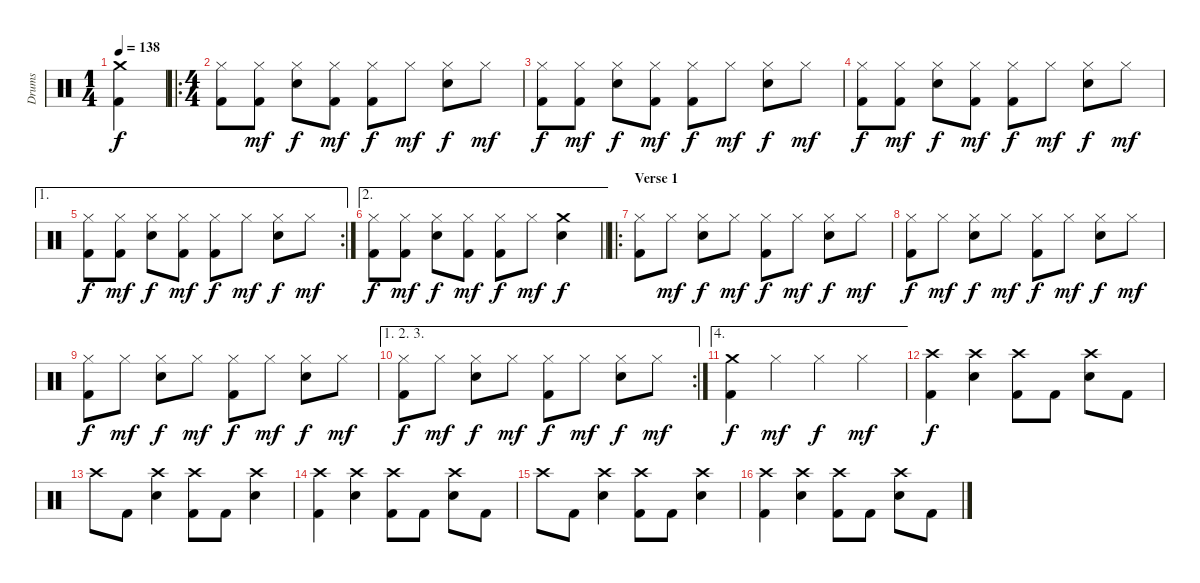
\track ("Drums" "Drums") {instrument percussion}
\staff {score}
\articulation defaults
\ts (1 4)
\tempo 138
\clef neutral
\ks c
("Crash medium (hit)" "Kick (hit) 2").4{dy f} |
\ro
\ts (4 4)
("Hi-Hat (closed)" "Kick (hit) 2").8 ("Hi-Hat (closed)" "Kick (hit) 2").8{dy mf} ("Hi-Hat (closed)" "Electric Snare (hit)").8{dy f} ("Hi-Hat (closed)" "Kick (hit) 2").8{dy mf} ("Hi-Hat (closed)" "Kick (hit) 2").8{dy f} "Hi-Hat (closed)".8{dy mf} ("Hi-Hat (closed)" "Electric Snare (hit)").8{dy f} "Hi-Hat (closed)".8{dy mf} |
("Hi-Hat (closed)" "Kick (hit) 2").8{dy f} ("Hi-Hat (closed)" "Kick (hit) 2").8{dy mf} ("Hi-Hat (closed)" "Electric Snare (hit)").8{dy f} ("Hi-Hat (closed)" "Kick (hit) 2").8{dy mf} ("Hi-Hat (closed)" "Kick (hit) 2").8{dy f} "Hi-Hat (closed)".8{dy mf} ("Hi-Hat (closed)" "Electric Snare (hit)").8{dy f} "Hi-Hat (closed)".8{dy mf} |
("Hi-Hat (closed)" "Kick (hit) 2").8{dy f} ("Hi-Hat (closed)" "Kick (hit) 2").8{dy mf} ("Hi-Hat (closed)" "Electric Snare (hit)").8{dy f} ("Hi-Hat (closed)" "Kick (hit) 2").8{dy mf} ("Hi-Hat (closed)" "Kick (hit) 2").8{dy f} "Hi-Hat (closed)".8{dy mf} ("Hi-Hat (closed)" "Electric Snare (hit)").8{dy f} "Hi-Hat (closed)".8{dy mf} |
\ae 1
\rc 2
("Hi-Hat (closed)" "Kick (hit) 2").8{dy f} ("Hi-Hat (closed)" "Kick (hit) 2").8{dy mf} ("Hi-Hat (closed)" "Electric Snare (hit)").8{dy f} ("Hi-Hat (closed)" "Kick (hit) 2").8{dy mf} ("Hi-Hat (closed)" "Kick (hit) 2").8{dy f} "Hi-Hat (closed)".8{dy mf} ("Hi-Hat (closed)" "Electric Snare (hit)").8{dy f} "Hi-Hat (closed)".8{dy mf} |
\ae 2
\barLineRight lightlight
("Hi-Hat (closed)" "Kick (hit) 2").8{dy f} ("Hi-Hat (closed)" "Kick (hit) 2").8{dy mf} ("Hi-Hat (closed)" "Electric Snare (hit)").8{dy f} ("Hi-Hat (closed)" "Kick (hit) 2").8{dy mf} ("Hi-Hat (closed)" "Kick (hit) 2").8{dy f} "Hi-Hat (closed)".8{dy mf} ("Crash medium (hit)" "Electric Snare (hit)").4{dy f} |
\ro
\section ("" "Verse 1")
("Hi-Hat (closed)" "Kick (hit) 2").8 "Hi-Hat (closed)".8{dy mf} ("Hi-Hat (closed)" "Electric Snare (hit)").8{dy f} "Hi-Hat (closed)".8{dy mf} ("Hi-Hat (closed)" "Kick (hit) 2").8{dy f} "Hi-Hat (closed)".8{dy mf} ("Hi-Hat (closed)" "Electric Snare (hit)").8{dy f} "Hi-Hat (closed)".8{dy mf} |
("Hi-Hat (closed)" "Kick (hit) 2").8{dy f} "Hi-Hat (closed)".8{dy mf} ("Hi-Hat (closed)" "Electric Snare (hit)").8{dy f} "Hi-Hat (closed)".8{dy mf} ("Hi-Hat (closed)" "Kick (hit) 2").8{dy f} "Hi-Hat (closed)".8{dy mf} ("Hi-Hat (closed)" "Electric Snare (hit)").8{dy f} "Hi-Hat (closed)".8{dy mf} |
("Hi-Hat (closed)" "Kick (hit) 2").8{dy f} "Hi-Hat (closed)".8{dy mf} ("Hi-Hat (closed)" "Electric Snare (hit)").8{dy f} "Hi-Hat (closed)".8{dy mf} ("Hi-Hat (closed)" "Kick (hit) 2").8{dy f} "Hi-Hat (closed)".8{dy mf} ("Hi-Hat (closed)" "Electric Snare (hit)").8{dy f} "Hi-Hat (closed)".8{dy mf} |
\ae (1 2 3)
\rc 2
("Hi-Hat (closed)" "Kick (hit) 2").8{dy f} "Hi-Hat (closed)".8{dy mf} ("Hi-Hat (closed)" "Electric Snare (hit)").8{dy f} "Hi-Hat (closed)".8{dy mf} ("Hi-Hat (closed)" "Kick (hit) 2").8{dy f} "Hi-Hat (closed)".8{dy mf} ("Hi-Hat (closed)" "Electric Snare (hit)").8{dy f} "Hi-Hat (closed)".8{dy mf} |
\ae 4
("Crash medium (hit)" "Kick (hit) 2").4{dy f} "Hi-Hat (closed)".4{dy mf} "Hi-Hat (closed)".4{dy f} "Hi-Hat (closed)".4{dy mf} |
("Crash high (hit)" "Kick (hit) 2").4{dy f} ("Crash high (hit)" "Electric Snare (hit)").4 ("Crash high (hit)" "Kick (hit) 2").8 "Kick (hit) 2".8 ("Crash high (hit)" "Electric Snare (hit)").8 "Kick (hit) 2".8 |
"Crash high (hit)".8 "Kick (hit) 2".8 ("Crash high (hit)" "Electric Snare (hit)").4 ("Crash high (hit)" "Kick (hit) 2").8 "Kick (hit) 2".8 ("Crash high (hit)" "Electric Snare (hit)").4 |
("Crash high (hit)" "Kick (hit) 2").4 ("Crash high (hit)" "Electric Snare (hit)").4 ("Crash high (hit)" "Kick (hit) 2").8 "Kick (hit) 2".8 ("Crash high (hit)" "Electric Snare (hit)").8 "Kick (hit) 2".8 |
"Crash high (hit)".8 "Kick (hit) 2".8 ("Crash high (hit)" "Electric Snare (hit)").4 ("Crash high (hit)" "Kick (hit) 2").8 "Kick (hit) 2".8 ("Crash high (hit)" "Electric Snare (hit)").4 |
("Crash high (hit)" "Kick (hit) 2").4 ("Crash high (hit)" "Electric Snare (hit)").4 ("Crash high (hit)" "Kick (hit) 2").8 "Kick (hit) 2".8 ("Crash high (hit)" "Electric Snare (hit)").8 "Kick (hit) 2".8
